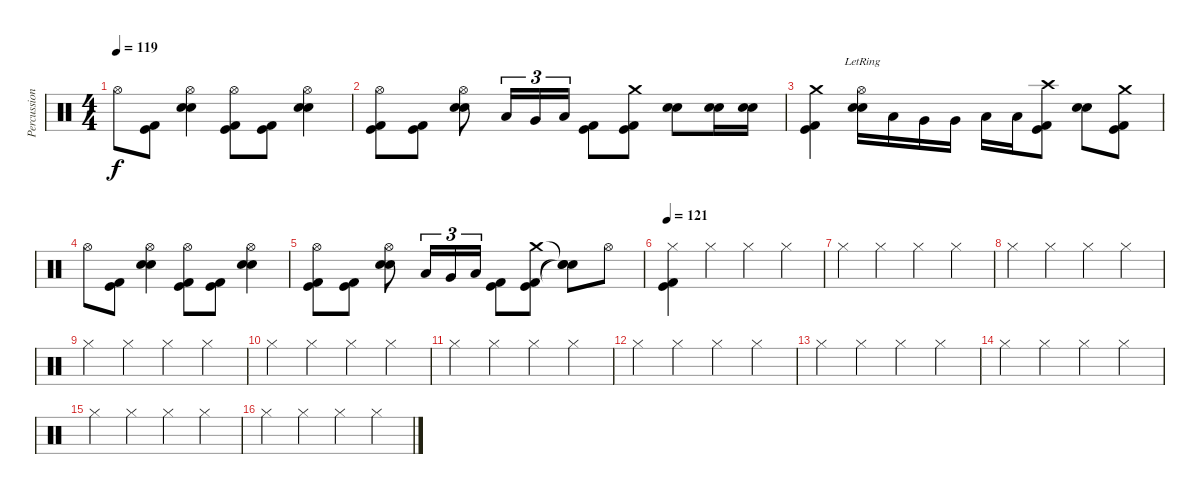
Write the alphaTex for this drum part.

\track ("Percussion" "Percussion") {instrument percussion}
\staff {score}
\articulation defaults
\ts (4 4)
\tempo 119
\clef neutral
\ks c "Hi-Hat (open)".8{dy f}
("Kick (hit)" "Kick (hit) 2").8 ("Hi-Hat (open)" "Electric Snare (hit)" "Metronome (bell)").4 ("Hi-Hat (open)" "Kick (hit)" "Kick (hit) 2").8 ("Kick (hit)" "Kick (hit) 2").8 ("Hi-Hat (open)" "Electric Snare (hit)" "Metronome (bell)").4 |
("Hi-Hat (open)" "Kick (hit)" "Kick (hit) 2").8 ("Kick (hit)" "Kick (hit) 2").8 ("Hi-Hat (open)" "Electric Snare (hit)" "Metronome (bell)").8 "Low Tom (hit)".16{tu (3 2)} "Very Low Tom (hit)".16{tu (3 2)} "Low Floor Tom (hit)".16{tu (3 2)} ("Kick (hit)" "Kick (hit) 2").8 ("Crash medium (hit)" "Kick (hit)" "Kick (hit) 2").8 ("Electric Snare (hit)" "Metronome (bell)").8 ("Electric Snare (hit)" "Metronome (bell)").16 ("Electric Snare (hit)" "Metronome (bell)").16 |
("Crash medium (hit)" "Kick (hit)" "Kick (hit) 2").4 ("Hi-Hat (open)"{lr} "Electric Snare (hit)" "Metronome (bell)").16 "Low Tom (hit)".16 "Very Low Tom (hit)".16 "Very Low Tom (hit)".16 "Low Floor Tom (hit)".16 "Low Floor Tom (hit)".16 ("Crash high (hit)" "Kick (hit)" "Kick (hit) 2").8 ("Electric Snare (hit)" "Metronome (bell)").8 ("Crash medium (hit)" "Kick (hit)" "Kick (hit) 2").8 |
"Hi-Hat (open)".8 ("Kick (hit)" "Kick (hit) 2").8 ("Hi-Hat (open)" "Electric Snare (hit)" "Metronome (bell)").4 ("Hi-Hat (open)" "Kick (hit)" "Kick (hit) 2").8 ("Kick (hit)" "Kick (hit) 2").8 ("Hi-Hat (open)" "Electric Snare (hit)" "Metronome (bell)").4 |
("Hi-Hat (open)" "Kick (hit)" "Kick (hit) 2").8 ("Kick (hit)" "Kick (hit) 2").8 ("Hi-Hat (open)" "Electric Snare (hit)" "Metronome (bell)").8 "Low Tom (hit)".16{tu (3 2)} "Very Low Tom (hit)".16{tu (3 2)} "Low Floor Tom (hit)".16{tu (3 2)} ("Kick (hit)" "Kick (hit) 2").8 ("Crash medium (hit)" "Kick (hit)" "Kick (hit) 2").8 ("Snare (hit)"{t} "Snare (hit)"{t} "Snare (hit)"{t}).8 "Hi-Hat (open)".8 |
\tempo 121
("Hi-Hat (closed)" "Kick (hit)" "Kick (hit) 2").4 "Hi-Hat (closed)".4 "Hi-Hat (closed)".4 "Hi-Hat (closed)".4 |
"Hi-Hat (closed)".4 "Hi-Hat (closed)".4 "Hi-Hat (closed)".4 "Hi-Hat (closed)".4 |
"Hi-Hat (closed)".4 "Hi-Hat (closed)".4 "Hi-Hat (closed)".4 "Hi-Hat (closed)".4 |
"Hi-Hat (closed)".4 "Hi-Hat (closed)".4 "Hi-Hat (closed)".4 "Hi-Hat (closed)".4 |
"Hi-Hat (closed)".4 "Hi-Hat (closed)".4 "Hi-Hat (closed)".4 "Hi-Hat (closed)".4 |
"Hi-Hat (closed)".4 "Hi-Hat (closed)".4 "Hi-Hat (closed)".4 "Hi-Hat (closed)".4 |
"Hi-Hat (closed)".4 "Hi-Hat (closed)".4 "Hi-Hat (closed)".4 "Hi-Hat (closed)".4 |
"Hi-Hat (closed)".4 "Hi-Hat (closed)".4 "Hi-Hat (closed)".4 "Hi-Hat (closed)".4 |
"Hi-Hat (closed)".4 "Hi-Hat (closed)".4 "Hi-Hat (closed)".4 "Hi-Hat (closed)".4 |
"Hi-Hat (closed)".4 "Hi-Hat (closed)".4 "Hi-Hat (closed)".4 "Hi-Hat (closed)".4 |
"Hi-Hat (closed)".4 "Hi-Hat (closed)".4 "Hi-Hat (closed)".4 "Hi-Hat (closed)".4
